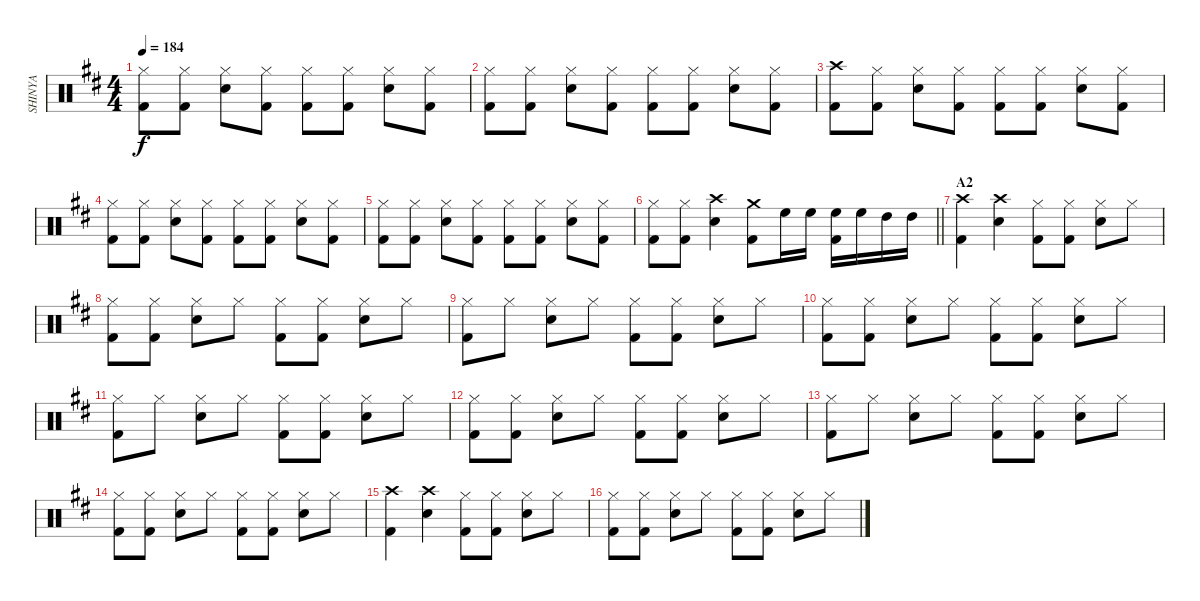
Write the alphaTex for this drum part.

\track ("SHINYA" "SHINYA") {instrument percussion}
\staff {score}
\articulation defaults
\ts (4 4)
\tempo 184
\clef neutral
\ks bminor
("Hi-Hat (closed)" "Kick (hit) 2").8{dy f} ("Hi-Hat (closed)" "Kick (hit) 2").8 ("Hi-Hat (closed)" "Snare (hit) 2").8 ("Hi-Hat (closed)" "Kick (hit) 2").8 ("Hi-Hat (closed)" "Kick (hit) 2").8 ("Hi-Hat (closed)" "Kick (hit) 2").8 ("Hi-Hat (closed)" "Snare (hit) 2").8 ("Hi-Hat (closed)" "Kick (hit) 2").8 |
("Hi-Hat (closed)" "Kick (hit) 2").8 ("Hi-Hat (closed)" "Kick (hit) 2").8 ("Hi-Hat (closed)" "Snare (hit) 2").8 ("Hi-Hat (closed)" "Kick (hit) 2").8 ("Hi-Hat (closed)" "Kick (hit) 2").8 ("Hi-Hat (closed)" "Kick (hit) 2").8 ("Hi-Hat (closed)" "Snare (hit) 2").8 ("Hi-Hat (closed)" "Kick (hit) 2").8 |
("Crash high (hit)" "Kick (hit) 2").8 ("Hi-Hat (closed)" "Kick (hit) 2").8 ("Hi-Hat (closed)" "Snare (hit) 2").8 ("Hi-Hat (closed)" "Kick (hit) 2").8 ("Hi-Hat (closed)" "Kick (hit) 2").8 ("Hi-Hat (closed)" "Kick (hit) 2").8 ("Hi-Hat (closed)" "Snare (hit) 2").8 ("Hi-Hat (closed)" "Kick (hit) 2").8 |
("Hi-Hat (closed)" "Kick (hit) 2").8 ("Hi-Hat (closed)" "Kick (hit) 2").8 ("Hi-Hat (closed)" "Snare (hit) 2").8 ("Hi-Hat (closed)" "Kick (hit) 2").8 ("Hi-Hat (closed)" "Kick (hit) 2").8 ("Hi-Hat (closed)" "Kick (hit) 2").8 ("Hi-Hat (closed)" "Snare (hit) 2").8 ("Hi-Hat (closed)" "Kick (hit) 2").8 |
("Hi-Hat (closed)" "Kick (hit) 2").8 ("Hi-Hat (closed)" "Kick (hit) 2").8 ("Hi-Hat (closed)" "Snare (hit) 2").8 ("Hi-Hat (closed)" "Kick (hit) 2").8 ("Hi-Hat (closed)" "Kick (hit) 2").8 ("Hi-Hat (closed)" "Kick (hit) 2").8 ("Hi-Hat (closed)" "Snare (hit) 2").8 ("Hi-Hat (closed)" "Kick (hit) 2").8 |
\barLineRight lightlight
("Hi-Hat (closed)" "Kick (hit) 2").8 ("Hi-Hat (closed)" "Kick (hit) 2").8 ("Crash high (hit)" "Snare (hit) 2").4 ("Crash medium (hit)" "Kick (hit) 2").8 "High Floor Tom (hit)".16 "High Floor Tom (hit)".16 ("High Floor Tom (hit)" "Kick (hit) 2").16 "High Floor Tom (hit)".16 "High Tom (hit)".16 "High Tom (hit)".16 |
\section ("" "A2")
("Crash high (hit)" "Kick (hit) 2").4 ("Crash high (hit)" "Snare (hit) 2").4 ("Hi-Hat (closed)" "Kick (hit) 2").8 ("Hi-Hat (closed)" "Kick (hit) 2").8 ("Hi-Hat (closed)" "Snare (hit) 2").8 "Hi-Hat (closed)".8 |
("Hi-Hat (closed)" "Kick (hit) 2").8 ("Hi-Hat (closed)" "Kick (hit) 2").8 ("Hi-Hat (closed)" "Snare (hit) 2").8 "Hi-Hat (closed)".8 ("Hi-Hat (closed)" "Kick (hit) 2").8 ("Hi-Hat (closed)" "Kick (hit) 2").8 ("Hi-Hat (closed)" "Snare (hit) 2").8 "Hi-Hat (closed)".8 |
("Hi-Hat (closed)" "Kick (hit) 2").8 "Hi-Hat (closed)".8 ("Hi-Hat (closed)" "Snare (hit) 2").8 "Hi-Hat (closed)".8 ("Hi-Hat (closed)" "Kick (hit) 2").8 ("Hi-Hat (closed)" "Kick (hit) 2").8 ("Hi-Hat (closed)" "Snare (hit) 2").8 "Hi-Hat (closed)".8 |
("Hi-Hat (closed)" "Kick (hit) 2").8 ("Hi-Hat (closed)" "Kick (hit) 2").8 ("Hi-Hat (closed)" "Snare (hit) 2").8 "Hi-Hat (closed)".8 ("Hi-Hat (closed)" "Kick (hit) 2").8 ("Hi-Hat (closed)" "Kick (hit) 2").8 ("Hi-Hat (closed)" "Snare (hit) 2").8 "Hi-Hat (closed)".8 |
("Hi-Hat (closed)" "Kick (hit) 2").8 "Hi-Hat (closed)".8 ("Hi-Hat (closed)" "Snare (hit) 2").8 "Hi-Hat (closed)".8 ("Hi-Hat (closed)" "Kick (hit) 2").8 ("Hi-Hat (closed)" "Kick (hit) 2").8 ("Hi-Hat (closed)" "Snare (hit) 2").8 "Hi-Hat (closed)".8 |
("Hi-Hat (closed)" "Kick (hit) 2").8 ("Hi-Hat (closed)" "Kick (hit) 2").8 ("Hi-Hat (closed)" "Snare (hit) 2").8 "Hi-Hat (closed)".8 ("Hi-Hat (closed)" "Kick (hit) 2").8 ("Hi-Hat (closed)" "Kick (hit) 2").8 ("Hi-Hat (closed)" "Snare (hit) 2").8 "Hi-Hat (closed)".8 |
("Hi-Hat (closed)" "Kick (hit) 2").8 "Hi-Hat (closed)".8 ("Hi-Hat (closed)" "Snare (hit) 2").8 "Hi-Hat (closed)".8 ("Hi-Hat (closed)" "Kick (hit) 2").8 ("Hi-Hat (closed)" "Kick (hit) 2").8 ("Hi-Hat (closed)" "Snare (hit) 2").8 "Hi-Hat (closed)".8 |
("Hi-Hat (closed)" "Kick (hit) 2").8 ("Hi-Hat (closed)" "Kick (hit) 2").8 ("Hi-Hat (closed)" "Snare (hit) 2").8 "Hi-Hat (closed)".8 ("Hi-Hat (closed)" "Kick (hit) 2").8 ("Hi-Hat (closed)" "Kick (hit) 2").8 ("Hi-Hat (closed)" "Snare (hit) 2").8 "Hi-Hat (closed)".8 |
("Crash high (hit)" "Kick (hit) 2").4 ("Crash high (hit)" "Snare (hit) 2").4 ("Hi-Hat (closed)" "Kick (hit) 2").8 ("Hi-Hat (closed)" "Kick (hit) 2").8 ("Hi-Hat (closed)" "Snare (hit) 2").8 "Hi-Hat (closed)".8 |
("Hi-Hat (closed)" "Kick (hit) 2").8 ("Hi-Hat (closed)" "Kick (hit) 2").8 ("Hi-Hat (closed)" "Snare (hit) 2").8 "Hi-Hat (closed)".8 ("Hi-Hat (closed)" "Kick (hit) 2").8 ("Hi-Hat (closed)" "Kick (hit) 2").8 ("Hi-Hat (closed)" "Snare (hit) 2").8 "Hi-Hat (closed)".8
